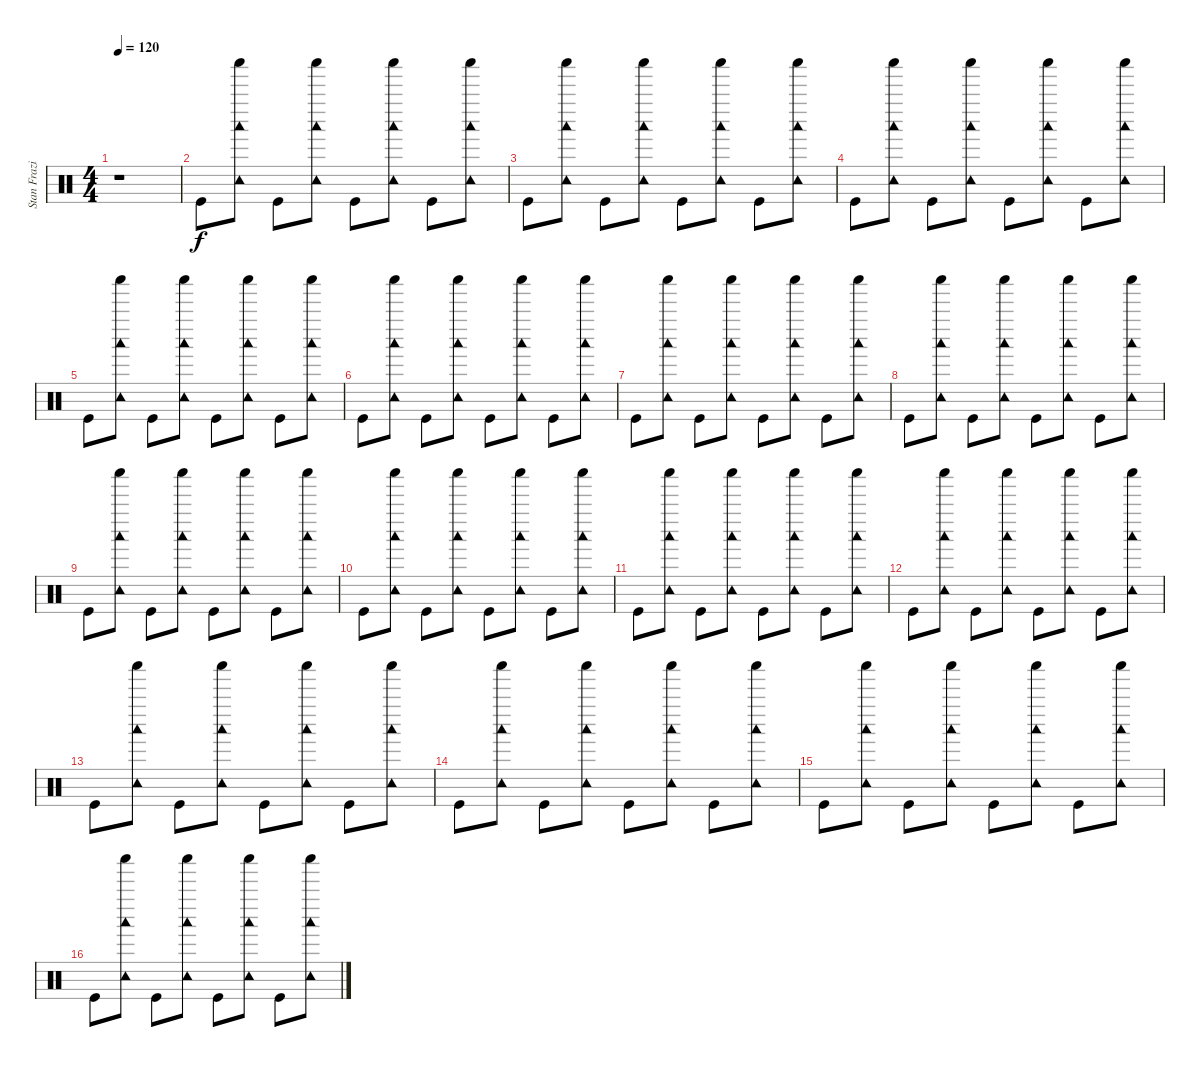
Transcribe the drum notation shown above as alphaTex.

\track ("Stan Frazier - Drums" "Stan Frazi") {instrument percussion}
\staff {score}
\articulation defaults
\ts (4 4)
\tempo 120
\clef neutral
\ks c
r.1{dy f volume 0 balance 8} |
"Kick (hit)".8{volume 6 balance 8} ("Shaker (hit)" "Woodblock low (hit)" "Tambourine (hit)").8 "Kick (hit)".8 ("Shaker (hit)" "Woodblock low (hit)" "Tambourine (hit)").8 "Kick (hit)".8 ("Shaker (hit)" "Woodblock low (hit)" "Tambourine (hit)").8 "Kick (hit)".8 ("Shaker (hit)" "Woodblock low (hit)" "Tambourine (hit)").8 |
"Kick (hit)".8 ("Shaker (hit)" "Woodblock low (hit)" "Tambourine (hit)").8 "Kick (hit)".8 ("Shaker (hit)" "Woodblock low (hit)" "Tambourine (hit)").8 "Kick (hit)".8 ("Shaker (hit)" "Woodblock low (hit)" "Tambourine (hit)").8 "Kick (hit)".8 ("Shaker (hit)" "Woodblock low (hit)" "Tambourine (hit)").8 |
"Kick (hit)".8 ("Shaker (hit)" "Woodblock low (hit)" "Tambourine (hit)").8 "Kick (hit)".8 ("Shaker (hit)" "Woodblock low (hit)" "Tambourine (hit)").8 "Kick (hit)".8 ("Shaker (hit)" "Woodblock low (hit)" "Tambourine (hit)").8 "Kick (hit)".8 ("Shaker (hit)" "Woodblock low (hit)" "Tambourine (hit)").8 |
"Kick (hit)".8 ("Shaker (hit)" "Woodblock low (hit)" "Tambourine (hit)").8 "Kick (hit)".8 ("Shaker (hit)" "Woodblock low (hit)" "Tambourine (hit)").8 "Kick (hit)".8 ("Shaker (hit)" "Woodblock low (hit)" "Tambourine (hit)").8 "Kick (hit)".8 ("Shaker (hit)" "Woodblock low (hit)" "Tambourine (hit)").8 |
"Kick (hit)".8 ("Shaker (hit)" "Woodblock low (hit)" "Tambourine (hit)").8 "Kick (hit)".8 ("Shaker (hit)" "Woodblock low (hit)" "Tambourine (hit)").8 "Kick (hit)".8 ("Shaker (hit)" "Woodblock low (hit)" "Tambourine (hit)").8 "Kick (hit)".8 ("Shaker (hit)" "Woodblock low (hit)" "Tambourine (hit)").8 |
"Kick (hit)".8 ("Shaker (hit)" "Woodblock low (hit)" "Tambourine (hit)").8 "Kick (hit)".8 ("Shaker (hit)" "Woodblock low (hit)" "Tambourine (hit)").8 "Kick (hit)".8 ("Shaker (hit)" "Woodblock low (hit)" "Tambourine (hit)").8 "Kick (hit)".8 ("Shaker (hit)" "Woodblock low (hit)" "Tambourine (hit)").8 |
"Kick (hit)".8 ("Shaker (hit)" "Woodblock low (hit)" "Tambourine (hit)").8 "Kick (hit)".8 ("Shaker (hit)" "Woodblock low (hit)" "Tambourine (hit)").8 "Kick (hit)".8 ("Shaker (hit)" "Woodblock low (hit)" "Tambourine (hit)").8 "Kick (hit)".8 ("Shaker (hit)" "Woodblock low (hit)" "Tambourine (hit)").8 |
"Kick (hit)".8 ("Shaker (hit)" "Woodblock low (hit)" "Tambourine (hit)").8 "Kick (hit)".8 ("Shaker (hit)" "Woodblock low (hit)" "Tambourine (hit)").8 "Kick (hit)".8 ("Shaker (hit)" "Woodblock low (hit)" "Tambourine (hit)").8 "Kick (hit)".8 ("Shaker (hit)" "Woodblock low (hit)" "Tambourine (hit)").8 |
"Kick (hit)".8 ("Shaker (hit)" "Woodblock low (hit)" "Tambourine (hit)").8 "Kick (hit)".8 ("Shaker (hit)" "Woodblock low (hit)" "Tambourine (hit)").8 "Kick (hit)".8 ("Shaker (hit)" "Woodblock low (hit)" "Tambourine (hit)").8 "Kick (hit)".8 ("Shaker (hit)" "Woodblock low (hit)" "Tambourine (hit)").8 |
"Kick (hit)".8 ("Shaker (hit)" "Woodblock low (hit)" "Tambourine (hit)").8 "Kick (hit)".8 ("Shaker (hit)" "Woodblock low (hit)" "Tambourine (hit)").8 "Kick (hit)".8 ("Shaker (hit)" "Woodblock low (hit)" "Tambourine (hit)").8 "Kick (hit)".8 ("Shaker (hit)" "Woodblock low (hit)" "Tambourine (hit)").8 |
"Kick (hit)".8 ("Shaker (hit)" "Woodblock low (hit)" "Tambourine (hit)").8 "Kick (hit)".8 ("Shaker (hit)" "Woodblock low (hit)" "Tambourine (hit)").8 "Kick (hit)".8 ("Shaker (hit)" "Woodblock low (hit)" "Tambourine (hit)").8 "Kick (hit)".8 ("Shaker (hit)" "Woodblock low (hit)" "Tambourine (hit)").8 |
"Kick (hit)".8 ("Shaker (hit)" "Woodblock low (hit)" "Tambourine (hit)").8 "Kick (hit)".8 ("Shaker (hit)" "Woodblock low (hit)" "Tambourine (hit)").8 "Kick (hit)".8 ("Shaker (hit)" "Woodblock low (hit)" "Tambourine (hit)").8 "Kick (hit)".8 ("Shaker (hit)" "Woodblock low (hit)" "Tambourine (hit)").8 |
"Kick (hit)".8 ("Shaker (hit)" "Woodblock low (hit)" "Tambourine (hit)").8 "Kick (hit)".8 ("Shaker (hit)" "Woodblock low (hit)" "Tambourine (hit)").8 "Kick (hit)".8 ("Shaker (hit)" "Woodblock low (hit)" "Tambourine (hit)").8 "Kick (hit)".8 ("Shaker (hit)" "Woodblock low (hit)" "Tambourine (hit)").8 |
"Kick (hit)".8 ("Shaker (hit)" "Woodblock low (hit)" "Tambourine (hit)").8 "Kick (hit)".8 ("Shaker (hit)" "Woodblock low (hit)" "Tambourine (hit)").8 "Kick (hit)".8 ("Shaker (hit)" "Woodblock low (hit)" "Tambourine (hit)").8 "Kick (hit)".8 ("Shaker (hit)" "Woodblock low (hit)" "Tambourine (hit)").8 |
"Kick (hit)".8 ("Shaker (hit)" "Woodblock low (hit)" "Tambourine (hit)").8 "Kick (hit)".8 ("Shaker (hit)" "Woodblock low (hit)" "Tambourine (hit)").8 "Kick (hit)".8 ("Shaker (hit)" "Woodblock low (hit)" "Tambourine (hit)").8 "Kick (hit)".8 ("Shaker (hit)" "Woodblock low (hit)" "Tambourine (hit)").8
